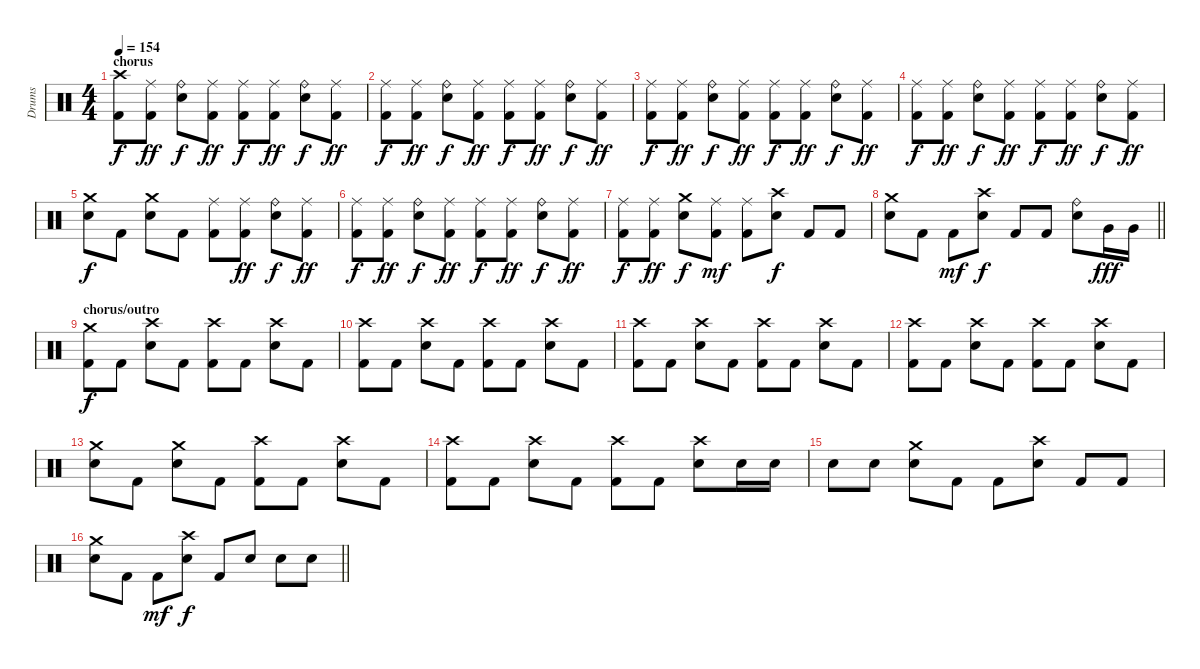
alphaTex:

\track ("Drums" "Drums") {instrument percussion}
\staff {score}
\articulation defaults
\ts (4 4)
\section ("" "chorus")
\tempo 154
\clef neutral
\ks c
("Crash high (hit)" "Kick (hit) 2").8{dy f} ("Ride (middle)" "Kick (hit) 2").8{dy ff} ("Ride (bell)" "Snare (hit) 2").8{dy f} ("Ride (middle)" "Kick (hit) 2").8{dy ff} ("Ride (middle)" "Kick (hit) 2").8{dy f} ("Ride (middle)" "Kick (hit) 2").8{dy ff} ("Ride (bell)" "Snare (hit) 2").8{dy f} ("Ride (middle)" "Kick (hit) 2").8{dy ff} |
("Ride (middle)" "Kick (hit) 2").8{dy f} ("Ride (middle)" "Kick (hit) 2").8{dy ff} ("Ride (bell)" "Snare (hit) 2").8{dy f} ("Ride (middle)" "Kick (hit) 2").8{dy ff} ("Ride (middle)" "Kick (hit) 2").8{dy f} ("Ride (middle)" "Kick (hit) 2").8{dy ff} ("Ride (bell)" "Snare (hit) 2").8{dy f} ("Ride (middle)" "Kick (hit) 2").8{dy ff} |
("Ride (middle)" "Kick (hit) 2").8{dy f} ("Ride (middle)" "Kick (hit) 2").8{dy ff} ("Ride (bell)" "Snare (hit) 2").8{dy f} ("Ride (middle)" "Kick (hit) 2").8{dy ff} ("Ride (middle)" "Kick (hit) 2").8{dy f} ("Ride (middle)" "Kick (hit) 2").8{dy ff} ("Ride (bell)" "Snare (hit) 2").8{dy f} ("Ride (middle)" "Kick (hit) 2").8{dy ff} |
("Ride (middle)" "Kick (hit) 2").8{dy f} ("Ride (middle)" "Kick (hit) 2").8{dy ff} ("Ride (bell)" "Snare (hit) 2").8{dy f} ("Ride (middle)" "Kick (hit) 2").8{dy ff} ("Ride (middle)" "Kick (hit) 2").8{dy f} ("Ride (middle)" "Kick (hit) 2").8{dy ff} ("Ride (bell)" "Snare (hit) 2").8{dy f} ("Ride (middle)" "Kick (hit) 2").8{dy ff} |
("Crash medium (hit)" "Snare (hit) 2").8{dy f} "Kick (hit) 2".8 ("Crash medium (hit)" "Snare (hit) 2").8 "Kick (hit) 2".8 ("Ride (middle)" "Kick (hit) 2").8 ("Ride (middle)" "Kick (hit) 2").8{dy ff} ("Ride (bell)" "Snare (hit) 2").8{dy f} ("Ride (middle)" "Kick (hit) 2").8{dy ff} |
("Ride (middle)" "Kick (hit) 2").8{dy f} ("Ride (middle)" "Kick (hit) 2").8{dy ff} ("Ride (bell)" "Snare (hit) 2").8{dy f} ("Ride (middle)" "Kick (hit) 2").8{dy ff} ("Ride (middle)" "Kick (hit) 2").8{dy f} ("Ride (middle)" "Kick (hit) 2").8{dy ff} ("Ride (bell)" "Snare (hit) 2").8{dy f} ("Ride (middle)" "Kick (hit) 2").8{dy ff} |
("Ride (middle)" "Kick (hit) 2").8{dy f} ("Ride (middle)" "Kick (hit) 2").8{dy ff} ("Crash medium (hit)" "Snare (hit) 2").8{dy f} ("Ride (middle)" "Kick (hit) 2").8{dy mf} ("Ride (middle)" "Kick (hit) 2").8 ("Crash high (hit)" "Snare (hit) 2").8{dy f} "Kick (hit) 2".8 "Kick (hit) 2".8 |
\barLineRight lightlight
("Crash medium (hit)" "Snare (hit) 2").8 "Kick (hit) 2".8 "Kick (hit) 2".8{dy mf} ("Crash high (hit)" "Snare (hit) 2").8{dy f} "Kick (hit) 2".8 "Kick (hit) 2".8 ("Ride (bell)" "Snare (hit) 2").8 "Very Low Tom (hit)".16{dy fff} "Very Low Tom (hit)".16 |
\section ("" "chorus/outro")
("Crash medium (hit)" "Kick (hit) 2").8{dy f} "Kick (hit) 2".8 ("Crash high (hit)" "Snare (hit) 2").8 "Kick (hit) 2".8 ("Crash high (hit)" "Kick (hit) 2").8 "Kick (hit) 2".8 ("Crash high (hit)" "Snare (hit) 2").8 "Kick (hit) 2".8 |
("Crash high (hit)" "Kick (hit) 2").8 "Kick (hit) 2".8 ("Crash high (hit)" "Snare (hit) 2").8 "Kick (hit) 2".8 ("Crash high (hit)" "Kick (hit) 2").8 "Kick (hit) 2".8 ("Crash high (hit)" "Snare (hit) 2").8 "Kick (hit) 2".8 |
("Crash high (hit)" "Kick (hit) 2").8 "Kick (hit) 2".8 ("Crash high (hit)" "Snare (hit) 2").8 "Kick (hit) 2".8 ("Crash high (hit)" "Kick (hit) 2").8 "Kick (hit) 2".8 ("Crash high (hit)" "Snare (hit) 2").8 "Kick (hit) 2".8 |
("Crash high (hit)" "Kick (hit) 2").8 "Kick (hit) 2".8 ("Crash high (hit)" "Snare (hit) 2").8 "Kick (hit) 2".8 ("Crash high (hit)" "Kick (hit) 2").8 "Kick (hit) 2".8 ("Crash high (hit)" "Snare (hit) 2").8 "Kick (hit) 2".8 |
("Crash medium (hit)" "Snare (hit) 2").8 "Kick (hit) 2".8 ("Crash medium (hit)" "Snare (hit) 2").8 "Kick (hit) 2".8 ("Crash high (hit)" "Kick (hit) 2").8 "Kick (hit) 2".8 ("Crash high (hit)" "Snare (hit) 2").8 "Kick (hit) 2".8 |
("Crash high (hit)" "Kick (hit) 2").8 "Kick (hit) 2".8 ("Crash high (hit)" "Snare (hit) 2").8 "Kick (hit) 2".8 ("Crash high (hit)" "Kick (hit) 2").8 "Kick (hit) 2".8 ("Crash high (hit)" "Snare (hit) 2").8 "Snare (hit) 2".16 "Snare (hit) 2".16 |
"Snare (hit) 2".8 "Snare (hit) 2".8 ("Crash medium (hit)" "Snare (hit) 2").8 "Kick (hit) 2".8 "Kick (hit) 2".8 ("Crash high (hit)" "Snare (hit) 2").8 "Kick (hit) 2".8 "Kick (hit) 2".8 |
\barLineRight lightlight
("Crash medium (hit)" "Snare (hit) 2").8 "Kick (hit) 2".8 "Kick (hit) 2".8{dy mf} ("Crash high (hit)" "Snare (hit) 2").8{dy f} "Kick (hit) 2".8 "Snare (hit) 2".8 "Snare (hit) 2".8 "Snare (hit) 2".8
